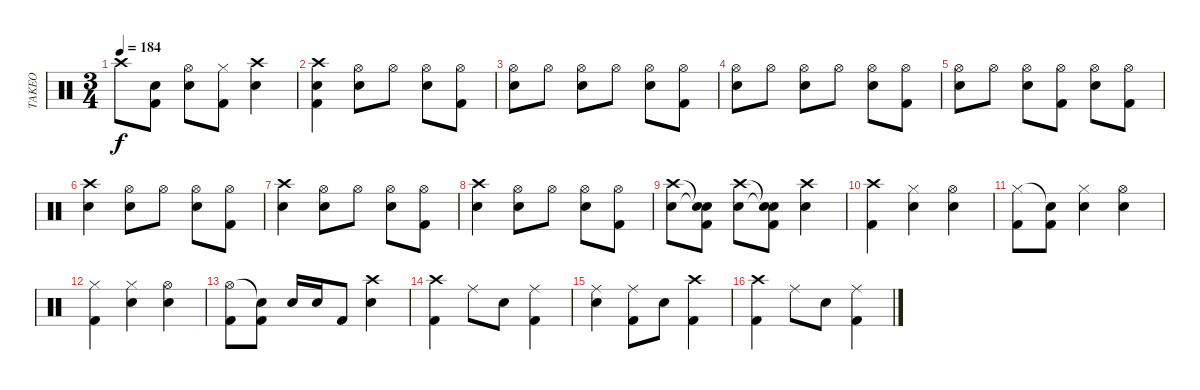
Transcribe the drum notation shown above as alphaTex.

\track ("TAKEO" "TAKEO") {instrument percussion}
\staff {score}
\articulation defaults
\ts (3 4)
\tempo 184
\clef neutral
\ks c "Crash high (hit)".8{dy f}
("Electric Snare (hit)" "Kick (hit) 2").8 ("Hi-Hat (open)" "Electric Snare (hit)").8 ("Hi-Hat (closed)" "Kick (hit) 2").8 ("Crash high (hit)" "Electric Snare (hit)").4 |
("Crash high (hit)" "Electric Snare (hit)" "Kick (hit) 2").4 ("Hi-Hat (open)" "Electric Snare (hit)").8 "Hi-Hat (open)".8 ("Hi-Hat (open)" "Electric Snare (hit)").8 ("Hi-Hat (open)" "Kick (hit) 2").8 |
("Hi-Hat (open)" "Electric Snare (hit)").8 "Hi-Hat (open)".8 ("Hi-Hat (open)" "Electric Snare (hit)").8 "Hi-Hat (open)".8 ("Hi-Hat (open)" "Electric Snare (hit)").8 ("Hi-Hat (open)" "Kick (hit) 2").8 |
("Hi-Hat (open)" "Electric Snare (hit)").8 "Hi-Hat (open)".8 ("Hi-Hat (open)" "Electric Snare (hit)").8 "Hi-Hat (open)".8 ("Hi-Hat (open)" "Electric Snare (hit)").8 ("Hi-Hat (open)" "Kick (hit) 2").8 |
("Hi-Hat (open)" "Electric Snare (hit)").8 "Hi-Hat (open)".8 ("Hi-Hat (open)" "Electric Snare (hit)").8 ("Hi-Hat (open)" "Kick (hit) 2").8 ("Hi-Hat (open)" "Electric Snare (hit)").8 ("Hi-Hat (open)" "Kick (hit) 2").8 |
("Crash high (hit)" "Electric Snare (hit)").4 ("Hi-Hat (open)" "Electric Snare (hit)").8 "Hi-Hat (open)".8 ("Hi-Hat (open)" "Electric Snare (hit)").8 ("Hi-Hat (open)" "Kick (hit) 2").8 |
("Crash high (hit)" "Electric Snare (hit)").4 ("Hi-Hat (open)" "Electric Snare (hit)").8 "Hi-Hat (open)".8 ("Hi-Hat (open)" "Electric Snare (hit)").8 ("Hi-Hat (open)" "Kick (hit) 2").8 |
("Crash high (hit)" "Electric Snare (hit)").4 ("Hi-Hat (open)" "Electric Snare (hit)").8 "Hi-Hat (open)".8 ("Hi-Hat (open)" "Electric Snare (hit)").8 ("Hi-Hat (open)" "Kick (hit) 2").8 |
("Crash high (hit)" "Electric Snare (hit)").8 ("Snare (hit)"{t} "Snare (hit)"{t} "Kick (hit) 2").8 ("Crash high (hit)" "Electric Snare (hit)").8 ("Snare (hit)"{t} "Snare (hit)"{t} "Kick (hit) 2").8 ("Crash high (hit)" "Electric Snare (hit)").4 |
("Crash high (hit)" "Kick (hit) 2").4 ("Hi-Hat (closed)" "Electric Snare (hit)").4 ("Hi-Hat (open)" "Electric Snare (hit)").4 |
("Hi-Hat (closed)" "Kick (hit) 2").8 ("Snare (hit)"{t} "Kick (hit) 2").8 ("Hi-Hat (closed)" "Electric Snare (hit)").4 ("Hi-Hat (open)" "Electric Snare (hit)").4 |
("Hi-Hat (closed)" "Kick (hit) 2").4 ("Hi-Hat (closed)" "Electric Snare (hit)").4 ("Hi-Hat (open)" "Electric Snare (hit)").4 |
("Hi-Hat (open)" "Kick (hit) 2").8 ("Snare (hit)"{t} "Kick (hit) 2").8 "Electric Snare (hit)".16 "Electric Snare (hit)".16 "Kick (hit) 2".8 ("Crash high (hit)" "Electric Snare (hit)").4 |
("Crash high (hit)" "Kick (hit) 2").4 "Ride (middle)".8 "Electric Snare (hit)".8 ("Ride (middle)" "Kick (hit) 2").4 |
("Ride (middle)" "Electric Snare (hit)").4 ("Ride (middle)" "Kick (hit) 2").8 "Electric Snare (hit)".8 ("Crash high (hit)" "Kick (hit) 2").4 |
("Crash high (hit)" "Kick (hit) 2").4 "Ride (middle)".8 "Electric Snare (hit)".8 ("Ride (middle)" "Kick (hit) 2").4
